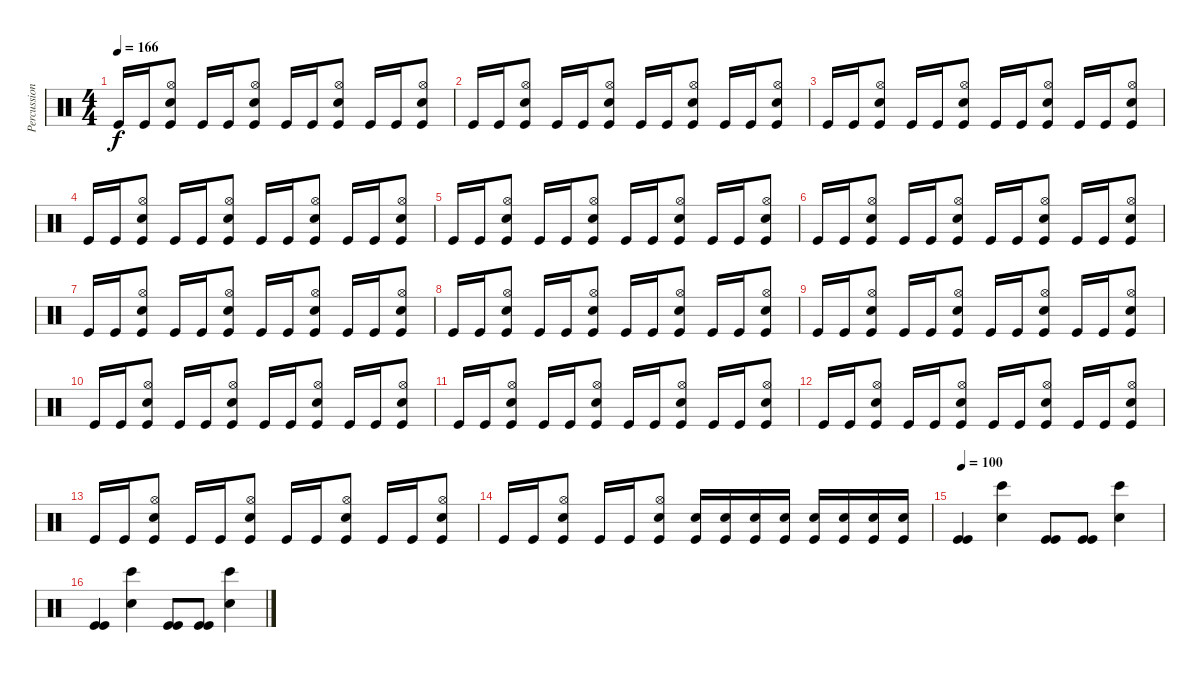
\track ("Percussioni" "Percussion") {instrument percussion}
\staff {score}
\articulation defaults
\ts (4 4)
\tempo 166
\clef neutral
\ks c "Kick (hit)".16{dy f} "Kick (hit)".16
("Hi-Hat (open)" "Snare (hit) 2" "Kick (hit)").8 "Kick (hit)".16 "Kick (hit)".16 ("Hi-Hat (open)" "Snare (hit) 2" "Kick (hit)").8 "Kick (hit)".16 "Kick (hit)".16 ("Hi-Hat (open)" "Snare (hit) 2" "Kick (hit)").8 "Kick (hit)".16 "Kick (hit)".16 ("Hi-Hat (open)" "Snare (hit) 2" "Kick (hit)").8 |
"Kick (hit)".16 "Kick (hit)".16 ("Hi-Hat (open)" "Snare (hit) 2" "Kick (hit)").8 "Kick (hit)".16 "Kick (hit)".16 ("Hi-Hat (open)" "Snare (hit) 2" "Kick (hit)").8 "Kick (hit)".16 "Kick (hit)".16 ("Hi-Hat (open)" "Snare (hit) 2" "Kick (hit)").8 "Kick (hit)".16 "Kick (hit)".16 ("Hi-Hat (open)" "Snare (hit) 2" "Kick (hit)").8 |
"Kick (hit)".16 "Kick (hit)".16 ("Hi-Hat (open)" "Snare (hit) 2" "Kick (hit)").8 "Kick (hit)".16 "Kick (hit)".16 ("Hi-Hat (open)" "Snare (hit) 2" "Kick (hit)").8 "Kick (hit)".16 "Kick (hit)".16 ("Hi-Hat (open)" "Snare (hit) 2" "Kick (hit)").8 "Kick (hit)".16 "Kick (hit)".16 ("Hi-Hat (open)" "Snare (hit) 2" "Kick (hit)").8 |
"Kick (hit)".16 "Kick (hit)".16 ("Hi-Hat (open)" "Snare (hit) 2" "Kick (hit)").8 "Kick (hit)".16 "Kick (hit)".16 ("Hi-Hat (open)" "Snare (hit) 2" "Kick (hit)").8 "Kick (hit)".16 "Kick (hit)".16 ("Hi-Hat (open)" "Snare (hit) 2" "Kick (hit)").8 "Kick (hit)".16 "Kick (hit)".16 ("Hi-Hat (open)" "Snare (hit) 2" "Kick (hit)").8 |
"Kick (hit)".16 "Kick (hit)".16 ("Hi-Hat (open)" "Snare (hit) 2" "Kick (hit)").8 "Kick (hit)".16 "Kick (hit)".16 ("Hi-Hat (open)" "Snare (hit) 2" "Kick (hit)").8 "Kick (hit)".16 "Kick (hit)".16 ("Hi-Hat (open)" "Snare (hit) 2" "Kick (hit)").8 "Kick (hit)".16 "Kick (hit)".16 ("Hi-Hat (open)" "Snare (hit) 2" "Kick (hit)").8 |
"Kick (hit)".16 "Kick (hit)".16 ("Hi-Hat (open)" "Snare (hit) 2" "Kick (hit)").8 "Kick (hit)".16 "Kick (hit)".16 ("Hi-Hat (open)" "Snare (hit) 2" "Kick (hit)").8 "Kick (hit)".16 "Kick (hit)".16 ("Hi-Hat (open)" "Snare (hit) 2" "Kick (hit)").8 "Kick (hit)".16 "Kick (hit)".16 ("Hi-Hat (open)" "Snare (hit) 2" "Kick (hit)").8 |
"Kick (hit)".16 "Kick (hit)".16 ("Hi-Hat (open)" "Snare (hit) 2" "Kick (hit)").8 "Kick (hit)".16 "Kick (hit)".16 ("Hi-Hat (open)" "Snare (hit) 2" "Kick (hit)").8 "Kick (hit)".16 "Kick (hit)".16 ("Hi-Hat (open)" "Snare (hit) 2" "Kick (hit)").8 "Kick (hit)".16 "Kick (hit)".16 ("Hi-Hat (open)" "Snare (hit) 2" "Kick (hit)").8 |
"Kick (hit)".16 "Kick (hit)".16 ("Hi-Hat (open)" "Snare (hit) 2" "Kick (hit)").8 "Kick (hit)".16 "Kick (hit)".16 ("Hi-Hat (open)" "Snare (hit) 2" "Kick (hit)").8 "Kick (hit)".16 "Kick (hit)".16 ("Hi-Hat (open)" "Snare (hit) 2" "Kick (hit)").8 "Kick (hit)".16 "Kick (hit)".16 ("Hi-Hat (open)" "Snare (hit) 2" "Kick (hit)").8 |
"Kick (hit)".16 "Kick (hit)".16 ("Hi-Hat (open)" "Snare (hit) 2" "Kick (hit)").8 "Kick (hit)".16 "Kick (hit)".16 ("Hi-Hat (open)" "Snare (hit) 2" "Kick (hit)").8 "Kick (hit)".16 "Kick (hit)".16 ("Hi-Hat (open)" "Snare (hit) 2" "Kick (hit)").8 "Kick (hit)".16 "Kick (hit)".16 ("Hi-Hat (open)" "Snare (hit) 2" "Kick (hit)").8 |
"Kick (hit)".16 "Kick (hit)".16 ("Hi-Hat (open)" "Snare (hit) 2" "Kick (hit)").8 "Kick (hit)".16 "Kick (hit)".16 ("Hi-Hat (open)" "Snare (hit) 2" "Kick (hit)").8 "Kick (hit)".16 "Kick (hit)".16 ("Hi-Hat (open)" "Snare (hit) 2" "Kick (hit)").8 "Kick (hit)".16 "Kick (hit)".16 ("Hi-Hat (open)" "Snare (hit) 2" "Kick (hit)").8 |
"Kick (hit)".16 "Kick (hit)".16 ("Hi-Hat (open)" "Snare (hit) 2" "Kick (hit)").8 "Kick (hit)".16 "Kick (hit)".16 ("Hi-Hat (open)" "Snare (hit) 2" "Kick (hit)").8 "Kick (hit)".16 "Kick (hit)".16 ("Hi-Hat (open)" "Snare (hit) 2" "Kick (hit)").8 "Kick (hit)".16 "Kick (hit)".16 ("Hi-Hat (open)" "Snare (hit) 2" "Kick (hit)").8 |
"Kick (hit)".16 "Kick (hit)".16 ("Hi-Hat (open)" "Snare (hit) 2" "Kick (hit)").8 "Kick (hit)".16 "Kick (hit)".16 ("Hi-Hat (open)" "Snare (hit) 2" "Kick (hit)").8 "Kick (hit)".16 "Kick (hit)".16 ("Hi-Hat (open)" "Snare (hit) 2" "Kick (hit)").8 "Kick (hit)".16 "Kick (hit)".16 ("Hi-Hat (open)" "Snare (hit) 2" "Kick (hit)").8 |
"Kick (hit)".16 "Kick (hit)".16 ("Hi-Hat (open)" "Snare (hit) 2" "Kick (hit)").8 "Kick (hit)".16 "Kick (hit)".16 ("Hi-Hat (open)" "Snare (hit) 2" "Kick (hit)").8 "Kick (hit)".16 "Kick (hit)".16 ("Hi-Hat (open)" "Snare (hit) 2" "Kick (hit)").8 "Kick (hit)".16 "Kick (hit)".16 ("Hi-Hat (open)" "Snare (hit) 2" "Kick (hit)").8 |
"Kick (hit)".16 "Kick (hit)".16 ("Hi-Hat (open)" "Snare (hit) 2" "Kick (hit)").8 "Kick (hit)".16 "Kick (hit)".16 ("Hi-Hat (open)" "Snare (hit) 2" "Kick (hit)").8 ("Snare (hit) 2" "Kick (hit)").16 ("Snare (hit) 2" "Kick (hit)").16 ("Snare (hit) 2" "Kick (hit)").16 ("Snare (hit) 2" "Kick (hit)").16 ("Snare (hit) 2" "Kick (hit)").16 ("Snare (hit) 2" "Kick (hit)").16 ("Snare (hit) 2" "Kick (hit)").16 ("Snare (hit) 2" "Kick (hit)").16 |
\tempo 100
("Kick (hit)" "Kick (hit)").4 ("Bongo High (hit)" "Snare (hit) 2").4 ("Kick (hit)" "Kick (hit)").8 ("Kick (hit)" "Kick (hit)").8 ("Bongo High (hit)" "Snare (hit) 2").4 |
("Kick (hit)" "Kick (hit)").4 ("Bongo High (hit)" "Snare (hit) 2").4 ("Kick (hit)" "Kick (hit)").8 ("Kick (hit)" "Kick (hit)").8 ("Bongo High (hit)" "Snare (hit) 2").4
